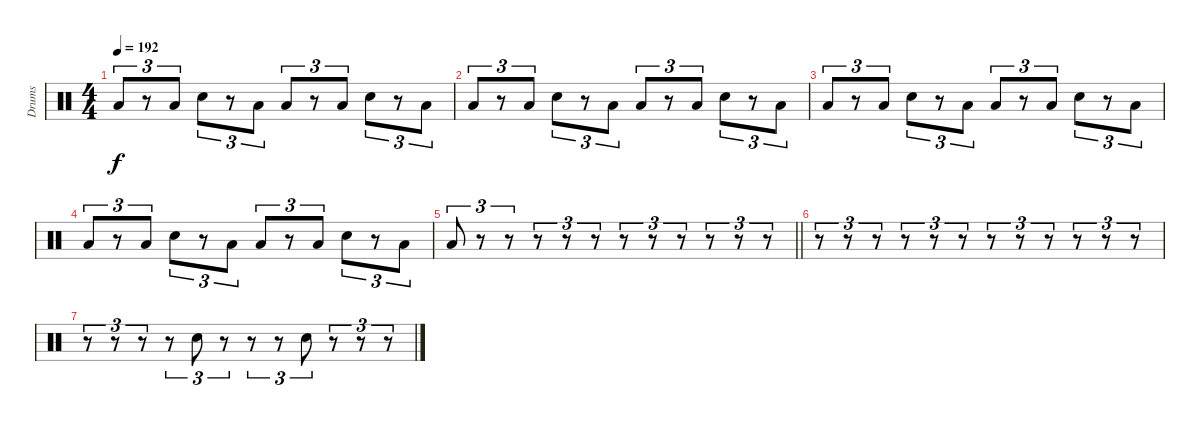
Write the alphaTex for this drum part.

\track ("Drums" "Drums") {instrument percussion}
\staff {score}
\articulation defaults
\ts (4 4)
\tempo 192
\clef neutral
\ks c "Low Floor Tom (hit)".8{tu (3 2) dy f}
r.8{tu (3 2)} "Low Tom (hit)".8{tu (3 2)} "Snare (hit) 2".8{tu (3 2)} r.8{tu (3 2)} "Low Tom (hit)".8{tu (3 2)} "Low Floor Tom (hit)".8{tu (3 2)} r.8{tu (3 2)} "Low Tom (hit)".8{tu (3 2)} "Snare (hit) 2".8{tu (3 2)} r.8{tu (3 2)} "Low Tom (hit)".8{tu (3 2)} |
"Low Floor Tom (hit)".8{tu (3 2)} r.8{tu (3 2)} "Low Tom (hit)".8{tu (3 2)} "Snare (hit) 2".8{tu (3 2)} r.8{tu (3 2)} "Low Tom (hit)".8{tu (3 2)} "Low Floor Tom (hit)".8{tu (3 2)} r.8{tu (3 2)} "Low Tom (hit)".8{tu (3 2)} "Snare (hit) 2".8{tu (3 2)} r.8{tu (3 2)} "Low Tom (hit)".8{tu (3 2)} |
"Low Floor Tom (hit)".8{tu (3 2)} r.8{tu (3 2)} "Low Tom (hit)".8{tu (3 2)} "Snare (hit) 2".8{tu (3 2)} r.8{tu (3 2)} "Low Tom (hit)".8{tu (3 2)} "Low Floor Tom (hit)".8{tu (3 2)} r.8{tu (3 2)} "Low Tom (hit)".8{tu (3 2)} "Snare (hit) 2".8{tu (3 2)} r.8{tu (3 2)} "Low Tom (hit)".8{tu (3 2)} |
"Low Floor Tom (hit)".8{tu (3 2)} r.8{tu (3 2)} "Low Tom (hit)".8{tu (3 2)} "Snare (hit) 2".8{tu (3 2)} r.8{tu (3 2)} "Low Tom (hit)".8{tu (3 2)} "Low Floor Tom (hit)".8{tu (3 2)} r.8{tu (3 2)} "Low Tom (hit)".8{tu (3 2)} "Snare (hit) 2".8{tu (3 2)} r.8{tu (3 2)} "Low Tom (hit)".8{tu (3 2)} |
\barLineRight lightlight "Low Floor Tom (hit)".8{tu (3 2)}
r.8{tu (3 2)} r.8{tu (3 2)} r.8{tu (3 2)} r.8{tu (3 2)} r.8{tu (3 2)} r.8{tu (3 2)} r.8{tu (3 2)} r.8{tu (3 2)} r.8{tu (3 2)} r.8{tu (3 2)} r.8{tu (3 2)} |
r.8{tu (3 2)} r.8{tu (3 2)} r.8{tu (3 2)} r.8{tu (3 2)} r.8{tu (3 2)} r.8{tu (3 2)} r.8{tu (3 2)} r.8{tu (3 2)} r.8{tu (3 2)} r.8{tu (3 2)} r.8{tu (3 2)} r.8{tu (3 2)} |
r.8{tu (3 2)} r.8{tu (3 2)} r.8{tu (3 2)} r.8{tu (3 2)} "Snare (hit) 2".8{tu (3 2)} r.8{tu (3 2)} r.8{tu (3 2)} r.8{tu (3 2)} "Snare (hit) 2".8{tu (3 2)} r.8{tu (3 2)} r.8{tu (3 2)} r.8{tu (3 2)}
